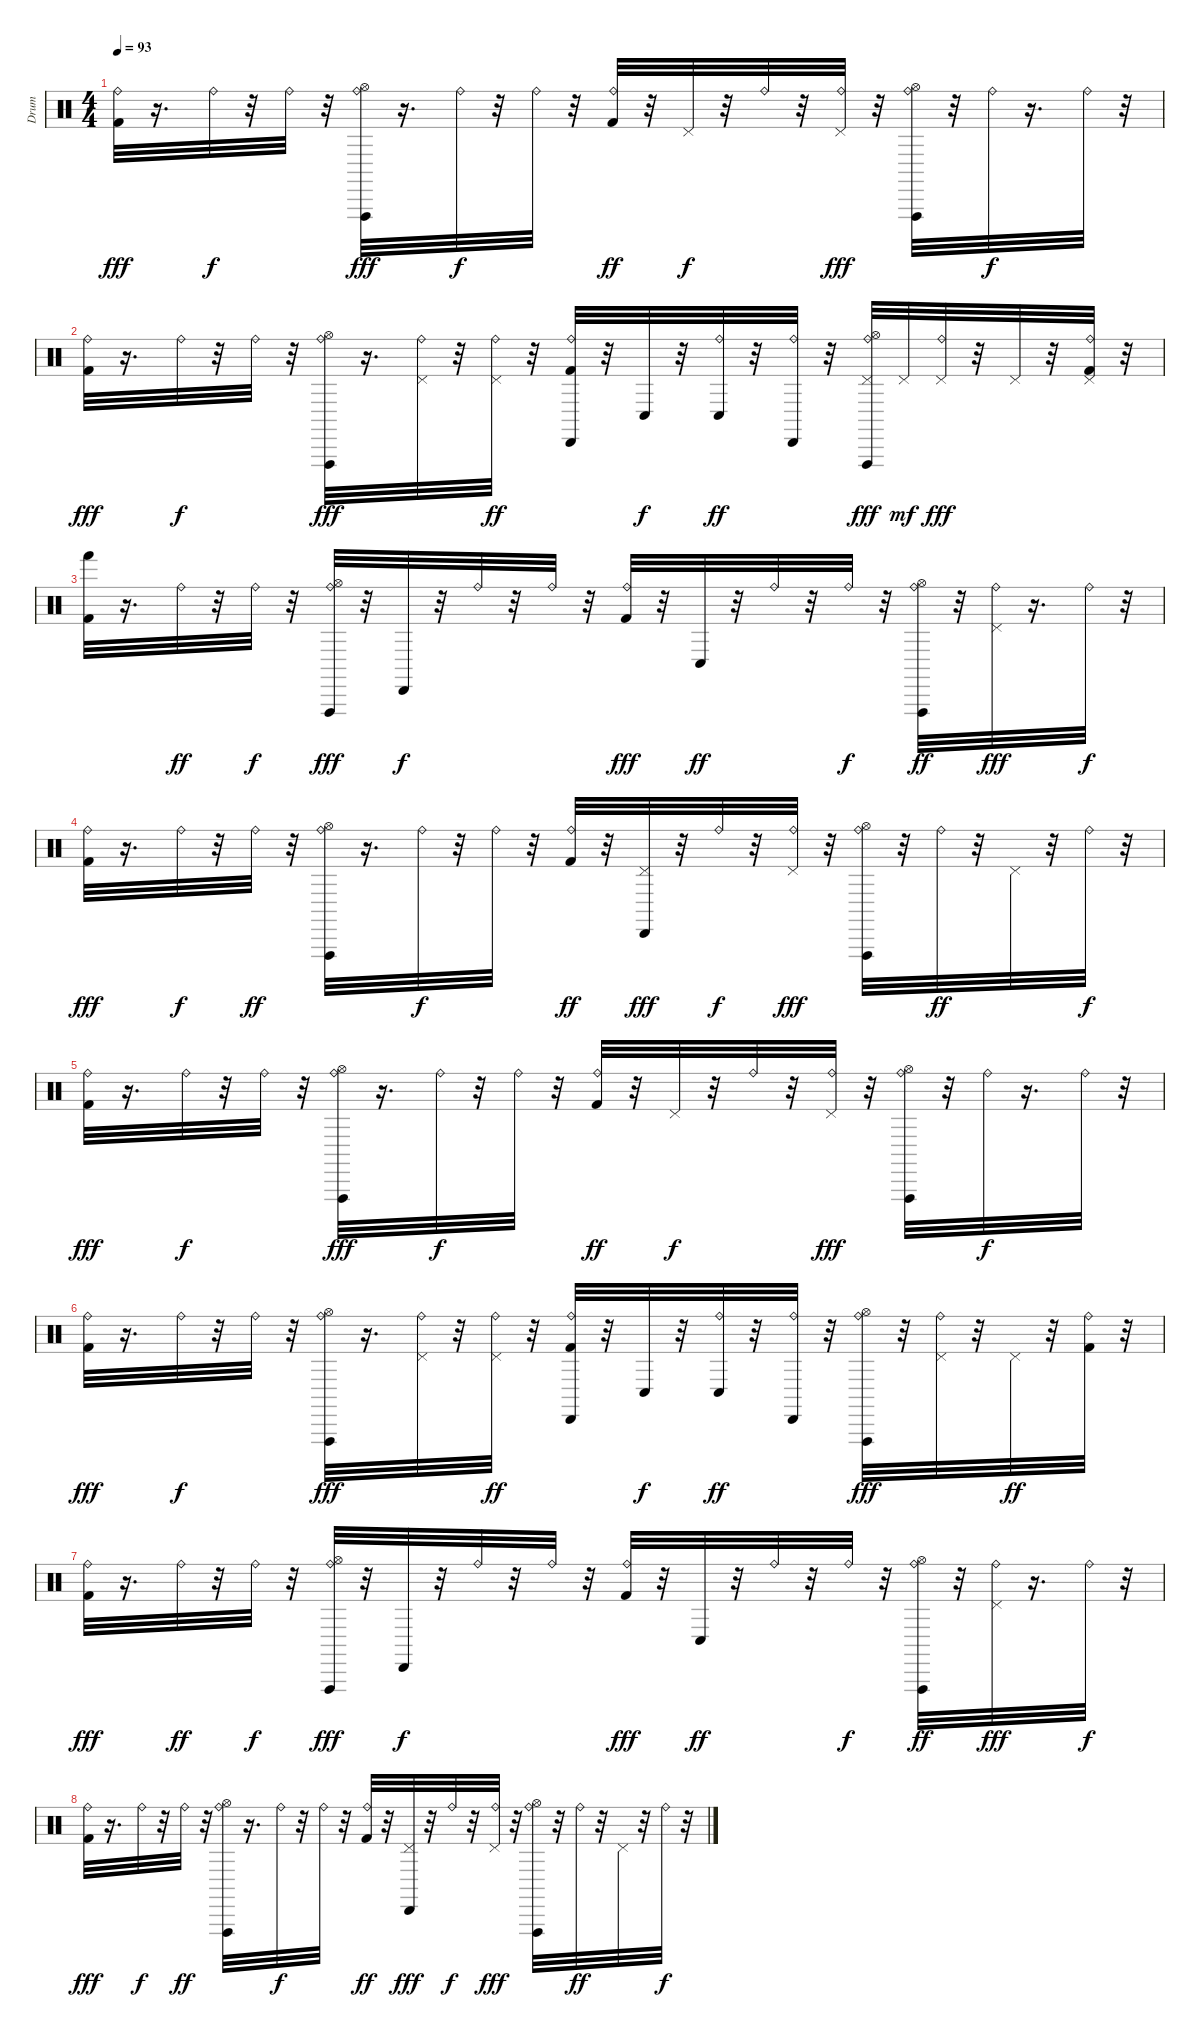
\track ("Drum" "Drum") {instrument percussion}
\staff {score}
\articulation defaults
\ts (4 4)
\tempo 93
\clef neutral
\ks c
("Kick (hit) 2" "Ride (bell)").32{dy fff} r.16{d} "Ride (bell)".32{dy f} r.32 "Ride (bell)".32 r.32 ("Ride (bell)" "Vibraslap (hit)" "Hi-Hat (open)").32{dy fff} r.16{d} "Ride (bell)".32{dy f} r.32 "Ride (bell)".32 r.32 ("Kick (hit) 2" "Ride (bell)").32{dy ff} r.32 "Pedal Hi-Hat (hit)".32{dy f} r.32 "Ride (bell)".32 r.32 ("Ride (bell)" "Pedal Hi-Hat (hit)").32{dy fff} r.32 ("Ride (bell)" "Vibraslap (hit)" "Hi-Hat (open)").32 r.32 "Ride (bell)".32{dy f} r.16{d} "Ride (bell)".32 r.32 |
("Kick (hit) 2" "Ride (bell)").32{dy fff} r.16{d} "Ride (bell)".32{dy f} r.32 "Ride (bell)".32 r.32 ("Ride (bell)" "Vibraslap (hit)" "Hi-Hat (open)").32{dy fff} r.16{d} ("Ride (bell)" "Pedal Hi-Hat (hit)").32 r.32 ("Ride (bell)" "Pedal Hi-Hat (hit)").32{dy ff} r.32 ("Cabasa (hit)" "Kick (hit) 2" "Ride (bell)").32 r.32 "Conga low (hit)".32{dy f} r.32 ("Conga low (hit)" "Ride (bell)").32{dy ff} r.32 ("Cabasa (hit)" "Ride (bell)").32 r.32 ("Ride (bell)" "Pedal Hi-Hat (hit)" "Vibraslap (hit)" "Hi-Hat (open)").32{dy fff} "Pedal Hi-Hat (hit)".32{dy mf} ("Ride (bell)" "Pedal Hi-Hat (hit)").32{dy fff} r.32 "Pedal Hi-Hat (hit)".32 r.32 ("Kick (hit) 2" "Ride (bell)" "Pedal Hi-Hat (hit)").32 r.32 |
("Hand (hit)" "Kick (hit) 2").32 r.16{d} "Ride (bell)".32{dy ff} r.32 "Ride (bell)".32{dy f} r.32 ("Ride (bell)" "Vibraslap (hit)" "Hi-Hat (open)").32{dy fff} r.32 "Cabasa (hit)".32{dy f} r.32 "Ride (bell)".32 r.32 "Ride (bell)".32 r.32 ("Kick (hit) 2" "Ride (bell)").32{dy fff} r.32 "Conga low (hit)".32{dy ff} r.32 "Ride (bell)".32 r.32 "Ride (bell)".32{dy f} r.32 ("Ride (bell)" "Vibraslap (hit)" "Hi-Hat (open)").32{dy ff} r.32 ("Ride (bell)" "Pedal Hi-Hat (hit)").32{dy fff} r.16{d} "Ride (bell)".32{dy f} r.32 |
("Kick (hit) 2" "Ride (bell)").32{dy fff} r.16{d} "Ride (bell)".32{dy f} r.32 "Ride (bell)".32{dy ff} r.32 ("Ride (bell)" "Vibraslap (hit)" "Hi-Hat (open)").32 r.16{d} "Ride (bell)".32{dy f} r.32 "Ride (bell)".32 r.32 ("Kick (hit) 2" "Ride (bell)").32{dy ff} r.32 ("Cabasa (hit)" "Pedal Hi-Hat (hit)").32{dy fff} r.32 "Ride (bell)".32{dy f} r.32 ("Ride (bell)" "Pedal Hi-Hat (hit)").32{dy fff} r.32 ("Ride (bell)" "Vibraslap (hit)" "Hi-Hat (open)").32 r.32 "Ride (bell)".32{dy ff} r.32 "Pedal Hi-Hat (hit)".32 r.32 "Ride (bell)".32{dy f} r.32 |
("Kick (hit) 2" "Ride (bell)").32{dy fff} r.16{d} "Ride (bell)".32{dy f} r.32 "Ride (bell)".32 r.32 ("Ride (bell)" "Vibraslap (hit)" "Hi-Hat (open)").32{dy fff} r.16{d} "Ride (bell)".32{dy f} r.32 "Ride (bell)".32 r.32 ("Kick (hit) 2" "Ride (bell)").32{dy ff} r.32 "Pedal Hi-Hat (hit)".32{dy f} r.32 "Ride (bell)".32 r.32 ("Ride (bell)" "Pedal Hi-Hat (hit)").32{dy fff} r.32 ("Ride (bell)" "Vibraslap (hit)" "Hi-Hat (open)").32 r.32 "Ride (bell)".32{dy f} r.16{d} "Ride (bell)".32 r.32 |
("Kick (hit) 2" "Ride (bell)").32{dy fff} r.16{d} "Ride (bell)".32{dy f} r.32 "Ride (bell)".32 r.32 ("Ride (bell)" "Vibraslap (hit)" "Hi-Hat (open)").32{dy fff} r.16{d} ("Ride (bell)" "Pedal Hi-Hat (hit)").32 r.32 ("Ride (bell)" "Pedal Hi-Hat (hit)").32{dy ff} r.32 ("Cabasa (hit)" "Kick (hit) 2" "Ride (bell)").32 r.32 "Conga low (hit)".32{dy f} r.32 ("Conga low (hit)" "Ride (bell)").32{dy ff} r.32 ("Cabasa (hit)" "Ride (bell)").32 r.32 ("Ride (bell)" "Vibraslap (hit)" "Hi-Hat (open)").32{dy fff} r.32 ("Ride (bell)" "Pedal Hi-Hat (hit)").32 r.32 "Pedal Hi-Hat (hit)".32{dy ff} r.32 ("Kick (hit) 2" "Ride (bell)").32 r.32 |
("Kick (hit) 2" "Ride (bell)").32{dy fff} r.16{d} "Ride (bell)".32{dy ff} r.32 "Ride (bell)".32{dy f} r.32 ("Ride (bell)" "Vibraslap (hit)" "Hi-Hat (open)").32{dy fff} r.32 "Cabasa (hit)".32{dy f} r.32 "Ride (bell)".32 r.32 "Ride (bell)".32 r.32 ("Kick (hit) 2" "Ride (bell)").32{dy fff} r.32 "Conga low (hit)".32{dy ff} r.32 "Ride (bell)".32 r.32 "Ride (bell)".32{dy f} r.32 ("Ride (bell)" "Vibraslap (hit)" "Hi-Hat (open)").32{dy ff} r.32 ("Ride (bell)" "Pedal Hi-Hat (hit)").32{dy fff} r.16{d} "Ride (bell)".32{dy f} r.32 |
("Kick (hit) 2" "Ride (bell)").32{dy fff} r.16{d} "Ride (bell)".32{dy f} r.32 "Ride (bell)".32{dy ff} r.32 ("Ride (bell)" "Vibraslap (hit)" "Hi-Hat (open)").32 r.16{d} "Ride (bell)".32{dy f} r.32 "Ride (bell)".32 r.32 ("Kick (hit) 2" "Ride (bell)").32{dy ff} r.32 ("Cabasa (hit)" "Pedal Hi-Hat (hit)").32{dy fff} r.32 "Ride (bell)".32{dy f} r.32 ("Ride (bell)" "Pedal Hi-Hat (hit)").32{dy fff} r.32 ("Ride (bell)" "Vibraslap (hit)" "Hi-Hat (open)").32 r.32 "Ride (bell)".32{dy ff} r.32 "Pedal Hi-Hat (hit)".32 r.32 "Ride (bell)".32{dy f} r.32
